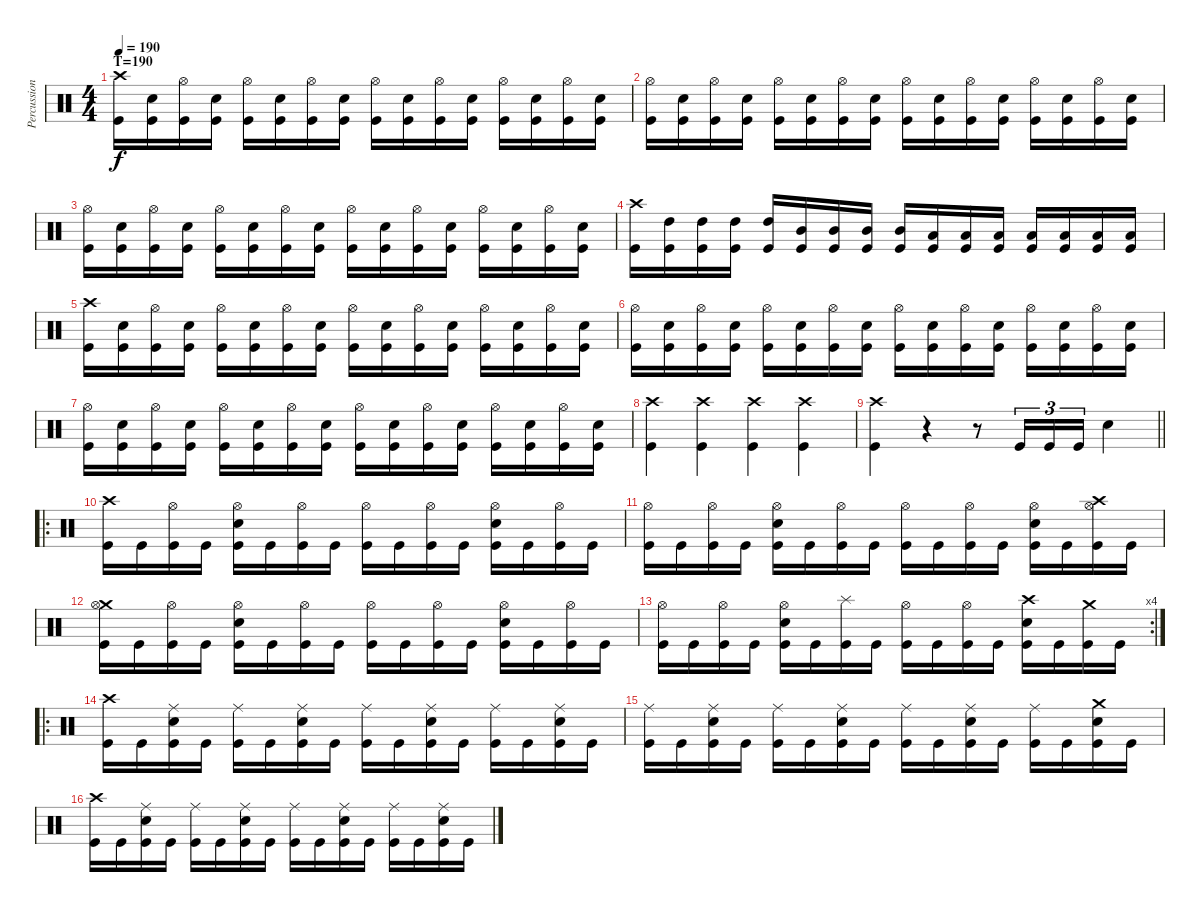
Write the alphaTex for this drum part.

\track ("Percussion" "Percussion") {instrument percussion}
\staff {score}
\articulation defaults
\ts (4 4)
\section ("" "T=190")
\tempo 190
\clef neutral
\ks c
("Crash high (hit)" "Kick (hit)").16{dy f} ("Electric Snare (hit)" "Kick (hit)").16 ("Hi-Hat (open)" "Kick (hit)").16 ("Electric Snare (hit)" "Kick (hit)").16 ("Hi-Hat (open)" "Kick (hit)").16 ("Electric Snare (hit)" "Kick (hit)").16 ("Hi-Hat (open)" "Kick (hit)").16 ("Electric Snare (hit)" "Kick (hit)").16 ("Hi-Hat (open)" "Kick (hit)").16 ("Electric Snare (hit)" "Kick (hit)").16 ("Hi-Hat (open)" "Kick (hit)").16 ("Electric Snare (hit)" "Kick (hit)").16 ("Hi-Hat (open)" "Kick (hit)").16 ("Electric Snare (hit)" "Kick (hit)").16 ("Hi-Hat (open)" "Kick (hit)").16 ("Electric Snare (hit)" "Kick (hit)").16 |
("Hi-Hat (open)" "Kick (hit)").16 ("Electric Snare (hit)" "Kick (hit)").16 ("Hi-Hat (open)" "Kick (hit)").16 ("Electric Snare (hit)" "Kick (hit)").16 ("Hi-Hat (open)" "Kick (hit)").16 ("Electric Snare (hit)" "Kick (hit)").16 ("Hi-Hat (open)" "Kick (hit)").16 ("Electric Snare (hit)" "Kick (hit)").16 ("Hi-Hat (open)" "Kick (hit)").16 ("Electric Snare (hit)" "Kick (hit)").16 ("Hi-Hat (open)" "Kick (hit)").16 ("Electric Snare (hit)" "Kick (hit)").16 ("Hi-Hat (open)" "Kick (hit)").16 ("Electric Snare (hit)" "Kick (hit)").16 ("Hi-Hat (open)" "Kick (hit)").16 ("Electric Snare (hit)" "Kick (hit)").16 |
("Hi-Hat (open)" "Kick (hit)").16 ("Electric Snare (hit)" "Kick (hit)").16 ("Hi-Hat (open)" "Kick (hit)").16 ("Electric Snare (hit)" "Kick (hit)").16 ("Hi-Hat (open)" "Kick (hit)").16 ("Electric Snare (hit)" "Kick (hit)").16 ("Hi-Hat (open)" "Kick (hit)").16 ("Electric Snare (hit)" "Kick (hit)").16 ("Hi-Hat (open)" "Kick (hit)").16 ("Electric Snare (hit)" "Kick (hit)").16 ("Hi-Hat (open)" "Kick (hit)").16 ("Electric Snare (hit)" "Kick (hit)").16 ("Hi-Hat (open)" "Kick (hit)").16 ("Electric Snare (hit)" "Kick (hit)").16 ("Hi-Hat (open)" "Kick (hit)").16 ("Electric Snare (hit)" "Kick (hit)").16 |
("Crash high (hit)" "Kick (hit)").16 ("High Tom (hit)" "Kick (hit)").16 ("High Tom (hit)" "Kick (hit)").16 ("High Tom (hit)" "Kick (hit)").16 ("High Tom (hit)" "Kick (hit)").16 ("Mid Tom (hit)" "Kick (hit)").16 ("Mid Tom (hit)" "Kick (hit)").16 ("Mid Tom (hit)" "Kick (hit)").16 ("Mid Tom (hit)" "Kick (hit)").16 ("Low Tom (hit)" "Kick (hit)").16 ("Low Tom (hit)" "Kick (hit)").16 ("Low Tom (hit)" "Kick (hit)").16 ("Low Tom (hit)" "Kick (hit)").16 ("Low Floor Tom (hit)" "Kick (hit)").16 ("Low Floor Tom (hit)" "Kick (hit)").16 ("Low Floor Tom (hit)" "Kick (hit)").16 |
("Crash high (hit)" "Kick (hit)").16 ("Electric Snare (hit)" "Kick (hit)").16 ("Hi-Hat (open)" "Kick (hit)").16 ("Electric Snare (hit)" "Kick (hit)").16 ("Hi-Hat (open)" "Kick (hit)").16 ("Electric Snare (hit)" "Kick (hit)").16 ("Hi-Hat (open)" "Kick (hit)").16 ("Electric Snare (hit)" "Kick (hit)").16 ("Hi-Hat (open)" "Kick (hit)").16 ("Electric Snare (hit)" "Kick (hit)").16 ("Hi-Hat (open)" "Kick (hit)").16 ("Electric Snare (hit)" "Kick (hit)").16 ("Hi-Hat (open)" "Kick (hit)").16 ("Electric Snare (hit)" "Kick (hit)").16 ("Hi-Hat (open)" "Kick (hit)").16 ("Electric Snare (hit)" "Kick (hit)").16 |
("Hi-Hat (open)" "Kick (hit)").16 ("Electric Snare (hit)" "Kick (hit)").16 ("Hi-Hat (open)" "Kick (hit)").16 ("Electric Snare (hit)" "Kick (hit)").16 ("Hi-Hat (open)" "Kick (hit)").16 ("Electric Snare (hit)" "Kick (hit)").16 ("Hi-Hat (open)" "Kick (hit)").16 ("Electric Snare (hit)" "Kick (hit)").16 ("Hi-Hat (open)" "Kick (hit)").16 ("Electric Snare (hit)" "Kick (hit)").16 ("Hi-Hat (open)" "Kick (hit)").16 ("Electric Snare (hit)" "Kick (hit)").16 ("Hi-Hat (open)" "Kick (hit)").16 ("Electric Snare (hit)" "Kick (hit)").16 ("Hi-Hat (open)" "Kick (hit)").16 ("Electric Snare (hit)" "Kick (hit)").16 |
("Hi-Hat (open)" "Kick (hit)").16 ("Electric Snare (hit)" "Kick (hit)").16 ("Hi-Hat (open)" "Kick (hit)").16 ("Electric Snare (hit)" "Kick (hit)").16 ("Hi-Hat (open)" "Kick (hit)").16 ("Electric Snare (hit)" "Kick (hit)").16 ("Hi-Hat (open)" "Kick (hit)").16 ("Electric Snare (hit)" "Kick (hit)").16 ("Hi-Hat (open)" "Kick (hit)").16 ("Electric Snare (hit)" "Kick (hit)").16 ("Hi-Hat (open)" "Kick (hit)").16 ("Electric Snare (hit)" "Kick (hit)").16 ("Hi-Hat (open)" "Kick (hit)").16 ("Electric Snare (hit)" "Kick (hit)").16 ("Hi-Hat (open)" "Kick (hit)").16 ("Electric Snare (hit)" "Kick (hit)").16 |
("Crash high (hit)" "Kick (hit)").4 ("Crash high (hit)" "Kick (hit)").4 ("Crash high (hit)" "Kick (hit)").4 ("Crash high (hit)" "Kick (hit)").4 |
\barLineRight lightlight
("Crash high (hit)" "Kick (hit)").4 r.4 r.8 "Kick (hit)".16{tu (3 2)} "Kick (hit)".16{tu (3 2)} "Kick (hit)".16{tu (3 2)} "Electric Snare (hit)".4 |
\ro
("Crash high (hit)" "Kick (hit)").16 "Kick (hit)".16 ("Hi-Hat (open)" "Kick (hit)").16 "Kick (hit)".16 ("Hi-Hat (open)" "Electric Snare (hit)" "Kick (hit)").16 "Kick (hit)".16 ("Hi-Hat (open)" "Kick (hit)").16 "Kick (hit)".16 ("Hi-Hat (open)" "Kick (hit)").16 "Kick (hit)".16 ("Hi-Hat (open)" "Kick (hit)").16 "Kick (hit)".16 ("Hi-Hat (open)" "Electric Snare (hit)" "Kick (hit)").16 "Kick (hit)".16 ("Hi-Hat (open)" "Kick (hit)").16 "Kick (hit)".16 |
("Hi-Hat (open)" "Kick (hit)").16 "Kick (hit)".16 ("Hi-Hat (open)" "Kick (hit)").16 "Kick (hit)".16 ("Hi-Hat (open)" "Electric Snare (hit)" "Kick (hit)").16 "Kick (hit)".16 ("Hi-Hat (open)" "Kick (hit)").16 "Kick (hit)".16 ("Hi-Hat (open)" "Kick (hit)").16 "Kick (hit)".16 ("Hi-Hat (open)" "Kick (hit)").16 "Kick (hit)".16 ("Hi-Hat (open)" "Electric Snare (hit)" "Kick (hit)").16 "Kick (hit)".16 ("Crash high (hit)" "Hi-Hat (open)" "Kick (hit)").16 "Kick (hit)".16 |
("Crash medium (hit)" "Hi-Hat (open)" "Kick (hit)").16 "Kick (hit)".16 ("Hi-Hat (open)" "Kick (hit)").16 "Kick (hit)".16 ("Hi-Hat (open)" "Electric Snare (hit)" "Kick (hit)").16 "Kick (hit)".16 ("Hi-Hat (open)" "Kick (hit)").16 "Kick (hit)".16 ("Hi-Hat (open)" "Kick (hit)").16 "Kick (hit)".16 ("Hi-Hat (open)" "Kick (hit)").16 "Kick (hit)".16 ("Hi-Hat (open)" "Electric Snare (hit)" "Kick (hit)").16 "Kick (hit)".16 ("Hi-Hat (open)" "Kick (hit)").16 "Kick (hit)".16 |
\rc 4
("Hi-Hat (open)" "Kick (hit)").16 "Kick (hit)".16 ("Hi-Hat (open)" "Kick (hit)").16 "Kick (hit)".16 ("Hi-Hat (open)" "Electric Snare (hit)" "Kick (hit)").16 "Kick (hit)".16 ("Splash (hit)" "Kick (hit)").16 "Kick (hit)".16 ("Hi-Hat (open)" "Kick (hit)").16 "Kick (hit)".16 ("Hi-Hat (open)" "Kick (hit)").16 "Kick (hit)".16 ("Crash high (hit)" "Electric Snare (hit)" "Kick (hit)").16 "Kick (hit)".16 ("Crash medium (hit)" "Kick (hit)").16 "Kick (hit)".16 |
\ro
("Crash high (hit)" "Kick (hit)").16 "Kick (hit)".16 ("Ride (middle)" "Electric Snare (hit)" "Kick (hit)").16 "Kick (hit)".16 ("Ride (middle)" "Kick (hit)").16 "Kick (hit)".16 ("Ride (middle)" "Electric Snare (hit)" "Kick (hit)").16 "Kick (hit)".16 ("Ride (middle)" "Kick (hit)").16 "Kick (hit)".16 ("Ride (middle)" "Electric Snare (hit)" "Kick (hit)").16 "Kick (hit)".16 ("Ride (middle)" "Kick (hit)").16 "Kick (hit)".16 ("Ride (middle)" "Electric Snare (hit)" "Kick (hit)").16 "Kick (hit)".16 |
("Ride (middle)" "Kick (hit)").16 "Kick (hit)".16 ("Ride (middle)" "Electric Snare (hit)" "Kick (hit)").16 "Kick (hit)".16 ("Ride (middle)" "Kick (hit)").16 "Kick (hit)".16 ("Ride (middle)" "Electric Snare (hit)" "Kick (hit)").16 "Kick (hit)".16 ("Ride (middle)" "Kick (hit)").16 "Kick (hit)".16 ("Ride (middle)" "Electric Snare (hit)" "Kick (hit)").16 "Kick (hit)".16 ("Ride (middle)" "Kick (hit)").16 "Kick (hit)".16 ("Crash medium (hit)" "Electric Snare (hit)" "Kick (hit)").16 "Kick (hit)".16 |
("Crash high (hit)" "Kick (hit)").16 "Kick (hit)".16 ("Ride (middle)" "Electric Snare (hit)" "Kick (hit)").16 "Kick (hit)".16 ("Ride (middle)" "Kick (hit)").16 "Kick (hit)".16 ("Ride (middle)" "Electric Snare (hit)" "Kick (hit)").16 "Kick (hit)".16 ("Ride (middle)" "Kick (hit)").16 "Kick (hit)".16 ("Ride (middle)" "Electric Snare (hit)" "Kick (hit)").16 "Kick (hit)".16 ("Ride (middle)" "Kick (hit)").16 "Kick (hit)".16 ("Ride (middle)" "Electric Snare (hit)" "Kick (hit)").16 "Kick (hit)".16
